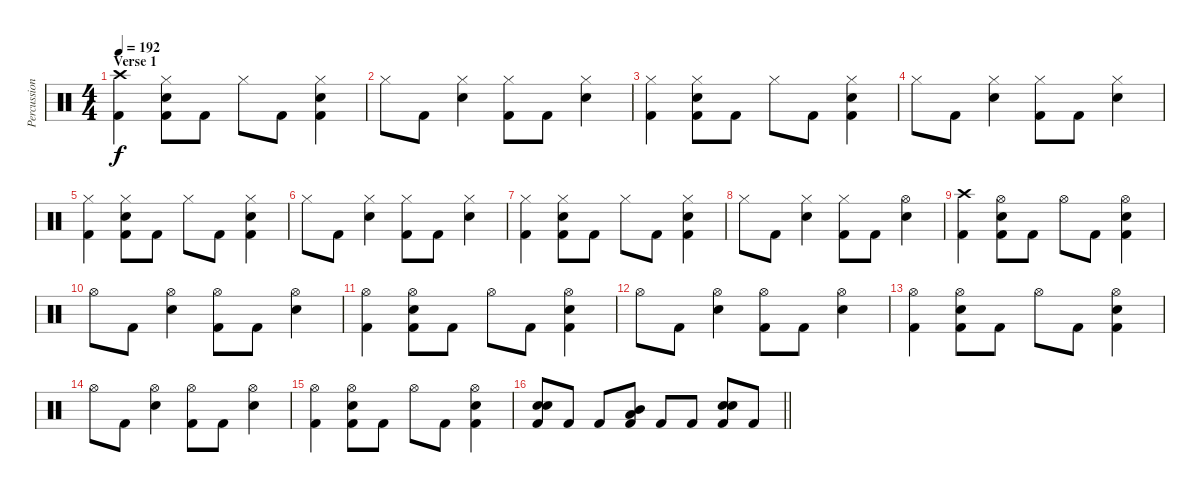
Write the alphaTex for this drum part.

\track ("Percussion" "Percussion") {instrument percussion}
\staff {score}
\articulation defaults
\ts (4 4)
\section ("" "Verse 1")
\tempo 192
\clef neutral
\ks aminor
("Kick (hit) 2" "Crash high (hit)").4{dy f} ("Kick (hit) 2" "Snare (hit) 2" "Hi-Hat (closed)").8 "Kick (hit) 2".8 "Hi-Hat (closed)".8 "Kick (hit) 2".8 ("Kick (hit) 2" "Snare (hit) 2" "Hi-Hat (closed)").4 |
"Hi-Hat (closed)".8 "Kick (hit) 2".8 ("Snare (hit) 2" "Hi-Hat (closed)").4 ("Kick (hit) 2" "Hi-Hat (closed)").8 "Kick (hit) 2".8 ("Snare (hit) 2" "Hi-Hat (closed)").4 |
("Kick (hit) 2" "Hi-Hat (closed)").4 ("Kick (hit) 2" "Snare (hit) 2" "Hi-Hat (closed)").8 "Kick (hit) 2".8 "Hi-Hat (closed)".8 "Kick (hit) 2".8 ("Kick (hit) 2" "Snare (hit) 2" "Hi-Hat (closed)").4 |
"Hi-Hat (closed)".8 "Kick (hit) 2".8 ("Snare (hit) 2" "Hi-Hat (closed)").4 ("Kick (hit) 2" "Hi-Hat (closed)").8 "Kick (hit) 2".8 ("Snare (hit) 2" "Hi-Hat (closed)").4 |
("Kick (hit) 2" "Hi-Hat (closed)").4 ("Kick (hit) 2" "Snare (hit) 2" "Hi-Hat (closed)").8 "Kick (hit) 2".8 "Hi-Hat (closed)".8 "Kick (hit) 2".8 ("Kick (hit) 2" "Snare (hit) 2" "Hi-Hat (closed)").4 |
"Hi-Hat (closed)".8 "Kick (hit) 2".8 ("Snare (hit) 2" "Hi-Hat (closed)").4 ("Kick (hit) 2" "Hi-Hat (closed)").8 "Kick (hit) 2".8 ("Snare (hit) 2" "Hi-Hat (closed)").4 |
("Kick (hit) 2" "Hi-Hat (closed)").4 ("Kick (hit) 2" "Snare (hit) 2" "Hi-Hat (closed)").8 "Kick (hit) 2".8 "Hi-Hat (closed)".8 "Kick (hit) 2".8 ("Kick (hit) 2" "Snare (hit) 2" "Hi-Hat (closed)").4 |
"Hi-Hat (closed)".8 "Kick (hit) 2".8 ("Snare (hit) 2" "Hi-Hat (closed)").4 ("Kick (hit) 2" "Hi-Hat (closed)").8 "Kick (hit) 2".8 ("Snare (hit) 2" "Hi-Hat (open)").4 |
("Kick (hit) 2" "Crash high (hit)").4 ("Kick (hit) 2" "Snare (hit) 2" "Hi-Hat (open)").8 "Kick (hit) 2".8 "Hi-Hat (open)".8 "Kick (hit) 2".8 ("Kick (hit) 2" "Snare (hit) 2" "Hi-Hat (open)").4 |
"Hi-Hat (open)".8 "Kick (hit) 2".8 ("Snare (hit) 2" "Hi-Hat (open)").4 ("Kick (hit) 2" "Hi-Hat (open)").8 "Kick (hit) 2".8 ("Snare (hit) 2" "Hi-Hat (open)").4 |
("Kick (hit) 2" "Hi-Hat (open)").4 ("Kick (hit) 2" "Snare (hit) 2" "Hi-Hat (open)").8 "Kick (hit) 2".8 "Hi-Hat (open)".8 "Kick (hit) 2".8 ("Kick (hit) 2" "Snare (hit) 2" "Hi-Hat (open)").4 |
"Hi-Hat (open)".8 "Kick (hit) 2".8 ("Snare (hit) 2" "Hi-Hat (open)").4 ("Kick (hit) 2" "Hi-Hat (open)").8 "Kick (hit) 2".8 ("Snare (hit) 2" "Hi-Hat (open)").4 |
("Kick (hit) 2" "Hi-Hat (open)").4 ("Kick (hit) 2" "Snare (hit) 2" "Hi-Hat (open)").8 "Kick (hit) 2".8 "Hi-Hat (open)".8 "Kick (hit) 2".8 ("Kick (hit) 2" "Snare (hit) 2" "Hi-Hat (open)").4 |
"Hi-Hat (open)".8 "Kick (hit) 2".8 ("Snare (hit) 2" "Hi-Hat (open)").4 ("Kick (hit) 2" "Hi-Hat (open)").8 "Kick (hit) 2".8 ("Snare (hit) 2" "Hi-Hat (open)").4 |
("Kick (hit) 2" "Hi-Hat (open)").4 ("Kick (hit) 2" "Snare (hit) 2" "Hi-Hat (open)").8 "Kick (hit) 2".8 "Hi-Hat (open)".8 "Kick (hit) 2".8 ("Kick (hit) 2" "Snare (hit) 2" "Hi-Hat (open)").4 |
\barLineRight lightlight
("Kick (hit) 2" "Snare (hit) 2" "Snare (hit) 2").8 "Kick (hit) 2".8 "Kick (hit) 2".8 ("Kick (hit) 2" "Mid Tom (hit)" "Low Floor Tom (hit)").8 "Kick (hit) 2".8 "Kick (hit) 2".8 ("Kick (hit) 2" "Snare (hit) 2" "Snare (hit) 2").8 "Kick (hit) 2".8
